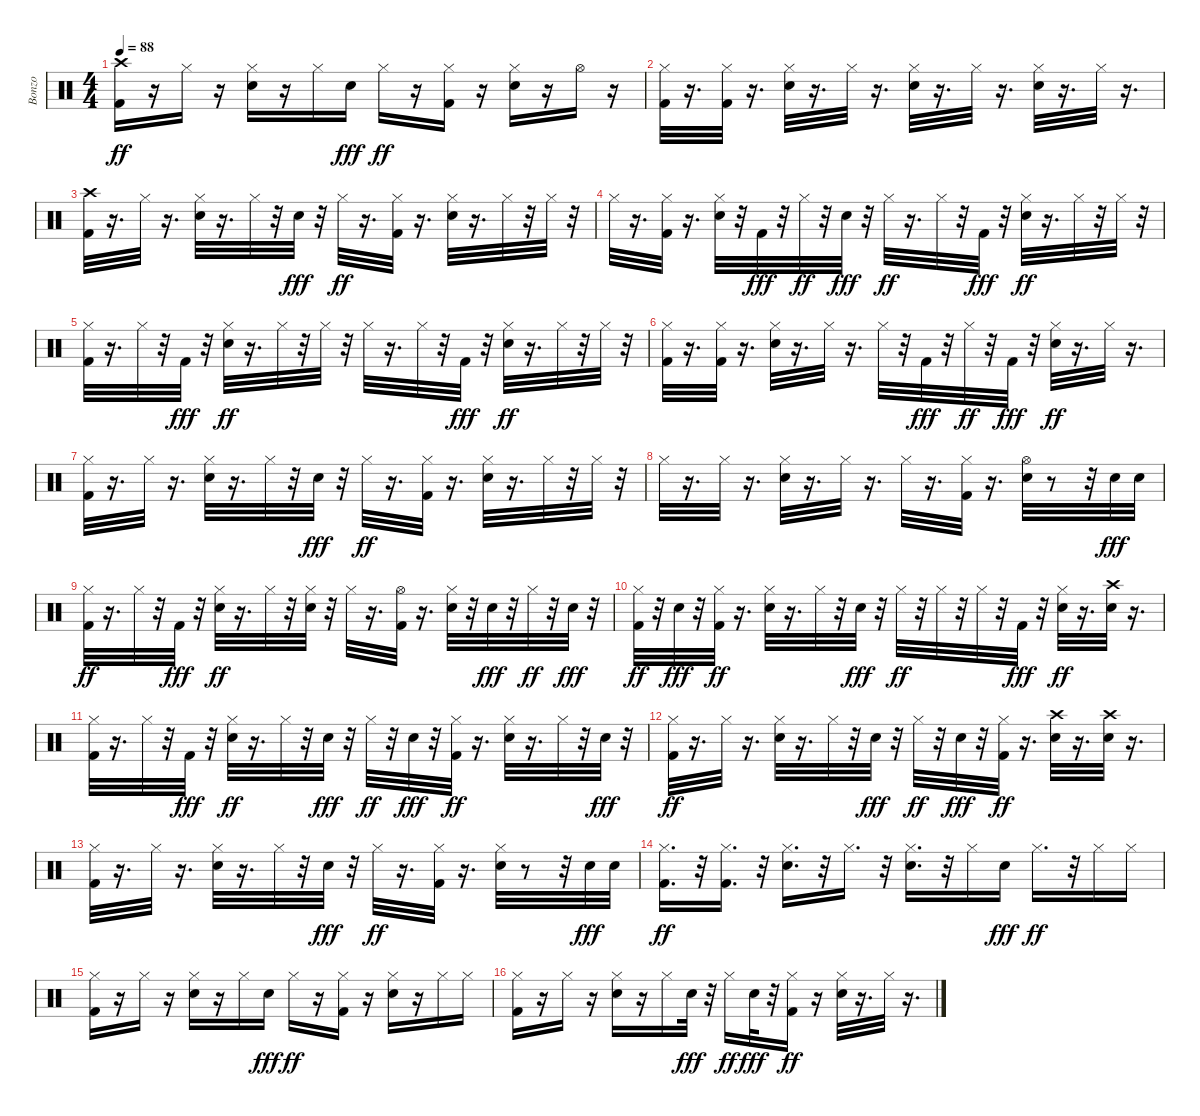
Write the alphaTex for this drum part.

\track ("Bonzo" "Bonzo") {instrument percussion}
\staff {score}
\articulation defaults
\ts (4 4)
\tempo 88
\clef neutral
\ks c
("Kick (hit) 2" "Crash high (hit)").16{dy ff} r.16 "Hi-Hat (closed)".16 r.16 ("Snare (hit) 2" "Hi-Hat (closed)").16 r.16 "Hi-Hat (closed)".16 "Snare (hit) 2".16{dy fff} "Hi-Hat (closed)".16{dy ff} r.16 ("Kick (hit) 2" "Hi-Hat (closed)").16 r.16 ("Snare (hit) 2" "Hi-Hat (closed)").16 r.16 "Hi-Hat (open)".16 r.16 |
("Kick (hit) 2" "Hi-Hat (closed)").32 r.16{d} ("Kick (hit) 2" "Hi-Hat (closed)").32 r.16{d} ("Snare (hit) 2" "Hi-Hat (closed)").32 r.16{d} "Hi-Hat (closed)".32 r.16{d} ("Snare (hit) 2" "Hi-Hat (closed)").32 r.16{d} "Hi-Hat (closed)".32 r.16{d} ("Snare (hit) 2" "Hi-Hat (closed)").32 r.16{d} "Hi-Hat (closed)".32 r.16{d} |
("Kick (hit) 2" "Crash high (hit)").32 r.16{d} "Hi-Hat (closed)".32 r.16{d} ("Snare (hit) 2" "Hi-Hat (closed)").32 r.16{d} "Hi-Hat (closed)".32 r.32 "Snare (hit) 2".32{dy fff} r.32 "Hi-Hat (closed)".32{dy ff} r.16{d} ("Kick (hit) 2" "Hi-Hat (closed)").32 r.16{d} ("Snare (hit) 2" "Hi-Hat (closed)").32 r.16{d} "Hi-Hat (closed)".32 r.32 "Hi-Hat (closed)".32 r.32 |
"Hi-Hat (closed)".32 r.16{d} ("Kick (hit) 2" "Hi-Hat (closed)").32 r.16{d} ("Snare (hit) 2" "Hi-Hat (closed)").32 r.32 "Kick (hit) 2".32{dy fff} r.32 "Hi-Hat (closed)".32{dy ff} r.32 "Snare (hit) 2".32{dy fff} r.32 "Hi-Hat (closed)".32{dy ff} r.16{d} "Hi-Hat (closed)".32 r.32 "Kick (hit) 2".32{dy fff} r.32 ("Snare (hit) 2" "Hi-Hat (closed)").32{dy ff} r.16{d} "Hi-Hat (closed)".32 r.32 "Hi-Hat (closed)".32 r.32 |
("Kick (hit) 2" "Hi-Hat (closed)").32 r.16{d} "Hi-Hat (closed)".32 r.32 "Kick (hit) 2".32{dy fff} r.32 ("Snare (hit) 2" "Hi-Hat (closed)").32{dy ff} r.16{d} "Hi-Hat (closed)".32 r.32 "Hi-Hat (closed)".32 r.32 "Hi-Hat (closed)".32 r.16{d} "Hi-Hat (closed)".32 r.32 "Kick (hit) 2".32{dy fff} r.32 ("Snare (hit) 2" "Hi-Hat (closed)").32{dy ff} r.16{d} "Hi-Hat (closed)".32 r.32 "Hi-Hat (closed)".32 r.32 |
("Kick (hit) 2" "Hi-Hat (closed)").32 r.16{d} ("Kick (hit) 2" "Hi-Hat (closed)").32 r.16{d} ("Snare (hit) 2" "Hi-Hat (closed)").32 r.16{d} "Hi-Hat (closed)".32 r.16{d} "Hi-Hat (closed)".32 r.32 "Kick (hit) 2".32{dy fff} r.32 "Hi-Hat (closed)".32{dy ff} r.32 "Kick (hit) 2".32{dy fff} r.32 ("Snare (hit) 2" "Hi-Hat (closed)").32{dy ff} r.16{d} "Hi-Hat (closed)".32 r.16{d} |
("Kick (hit) 2" "Hi-Hat (closed)").32 r.16{d} "Hi-Hat (closed)".32 r.16{d} ("Snare (hit) 2" "Hi-Hat (closed)").32 r.16{d} "Hi-Hat (closed)".32 r.32 "Snare (hit) 2".32{dy fff} r.32 "Hi-Hat (closed)".32{dy ff} r.16{d} ("Kick (hit) 2" "Hi-Hat (closed)").32 r.16{d} ("Snare (hit) 2" "Hi-Hat (closed)").32 r.16{d} "Hi-Hat (closed)".32 r.32 "Hi-Hat (closed)".32 r.32 |
"Hi-Hat (closed)".32 r.16{d} "Hi-Hat (closed)".32 r.16{d} ("Snare (hit) 2" "Hi-Hat (closed)").32 r.16{d} "Hi-Hat (closed)".32 r.16{d} "Hi-Hat (closed)".32 r.16{d} ("Kick (hit) 2" "Hi-Hat (closed)").32 r.16{d} ("Snare (hit) 2" "Hi-Hat (open)").32 r.8 r.32 "Snare (hit) 2".32{dy fff} "Snare (hit) 2".32 |
("Kick (hit) 2" "Hi-Hat (closed)").32{dy ff} r.16{d} "Hi-Hat (closed)".32 r.32 "Kick (hit) 2".32{dy fff} r.32 ("Snare (hit) 2" "Hi-Hat (closed)").32{dy ff} r.16{d} "Hi-Hat (closed)".32 r.32 ("Snare (hit) 2" "Hi-Hat (closed)").32 r.32 "Hi-Hat (closed)".32 r.16{d} ("Kick (hit) 2" "Hi-Hat (open)").32 r.16{d} ("Snare (hit) 2" "Hi-Hat (closed)").32 r.32 "Snare (hit) 2".32{dy fff} r.32 "Hi-Hat (closed)".32{dy ff} r.32 "Snare (hit) 2".32{dy fff} r.32 |
("Kick (hit) 2" "Hi-Hat (closed)").32{dy ff} r.32 "Snare (hit) 2".32{dy fff} r.32 ("Kick (hit) 2" "Hi-Hat (closed)").32{dy ff} r.16{d} ("Snare (hit) 2" "Hi-Hat (closed)").32 r.16{d} "Hi-Hat (closed)".32 r.32 "Snare (hit) 2".32{dy fff} r.32 "Hi-Hat (closed)".32{dy ff} r.32 "Hi-Hat (closed)".32 r.32 "Hi-Hat (closed)".32 r.32 "Kick (hit) 2".32{dy fff} r.32 ("Snare (hit) 2" "Hi-Hat (closed)").32{dy ff} r.16{d} ("Snare (hit) 2" "Crash high (hit)").32 r.16{d} |
("Kick (hit) 2" "Hi-Hat (closed)").32 r.16{d} "Hi-Hat (closed)".32 r.32 "Kick (hit) 2".32{dy fff} r.32 ("Snare (hit) 2" "Hi-Hat (closed)").32{dy ff} r.16{d} "Hi-Hat (closed)".32 r.32 "Snare (hit) 2".32{dy fff} r.32 "Hi-Hat (closed)".32{dy ff} r.32 "Snare (hit) 2".32{dy fff} r.32 ("Kick (hit) 2" "Hi-Hat (closed)").32{dy ff} r.16{d} ("Snare (hit) 2" "Hi-Hat (closed)").32 r.16{d} "Hi-Hat (closed)".32 r.32 "Snare (hit) 2".32{dy fff} r.32 |
("Kick (hit) 2" "Hi-Hat (closed)").32{dy ff} r.16{d} "Hi-Hat (closed)".32 r.16{d} ("Snare (hit) 2" "Hi-Hat (closed)").32 r.16{d} "Hi-Hat (closed)".32 r.32 "Snare (hit) 2".32{dy fff} r.32 "Hi-Hat (closed)".32{dy ff} r.32 "Snare (hit) 2".32{dy fff} r.32 ("Kick (hit) 2" "Hi-Hat (closed)").32{dy ff} r.16{d} ("Snare (hit) 2" "Crash high (hit)").32 r.16{d} ("Snare (hit) 2" "Crash high (hit)").32 r.16{d} |
("Kick (hit) 2" "Hi-Hat (closed)").32 r.16{d} "Hi-Hat (closed)".32 r.16{d} ("Snare (hit) 2" "Hi-Hat (closed)").32 r.16{d} "Hi-Hat (closed)".32 r.32 "Snare (hit) 2".32{dy fff} r.32 "Hi-Hat (closed)".32{dy ff} r.16{d} ("Kick (hit) 2" "Hi-Hat (closed)").32 r.16{d} ("Snare (hit) 2" "Hi-Hat (closed)").32 r.8 r.32 "Snare (hit) 2".32{dy fff} "Snare (hit) 2".32 |
("Kick (hit) 2" "Hi-Hat (closed)").16{d dy ff} r.32 ("Kick (hit) 2" "Hi-Hat (closed)").16{d} r.32 ("Snare (hit) 2" "Hi-Hat (closed)").16{d} r.32 "Hi-Hat (closed)".16{d} r.32 ("Snare (hit) 2" "Hi-Hat (closed)").16{d} r.32 "Hi-Hat (closed)".16 "Snare (hit) 2".16{dy fff} "Hi-Hat (closed)".16{d dy ff} r.32 "Hi-Hat (closed)".16 "Hi-Hat (closed)".16 |
("Kick (hit) 2" "Hi-Hat (closed)").16 r.16 "Hi-Hat (closed)".16 r.16 ("Snare (hit) 2" "Hi-Hat (closed)").16 r.16 "Hi-Hat (closed)".16 "Snare (hit) 2".16{dy fff} "Hi-Hat (closed)".16{dy ff} r.16 ("Kick (hit) 2" "Hi-Hat (closed)").16 r.16 ("Snare (hit) 2" "Hi-Hat (closed)").16 r.16 "Hi-Hat (closed)".16 "Hi-Hat (closed)".16 |
("Kick (hit) 2" "Hi-Hat (closed)").16 r.16 "Hi-Hat (closed)".16 r.16 ("Snare (hit) 2" "Hi-Hat (closed)").16 r.16 "Hi-Hat (closed)".16 "Snare (hit) 2".32{dy fff} r.32 "Hi-Hat (closed)".16{dy ff} "Snare (hit) 2".32{dy fff} r.32 ("Kick (hit) 2" "Hi-Hat (closed)").16{dy ff} r.16 ("Snare (hit) 2" "Hi-Hat (closed)").32 r.16{d} "Hi-Hat (closed)".32 r.16{d}
